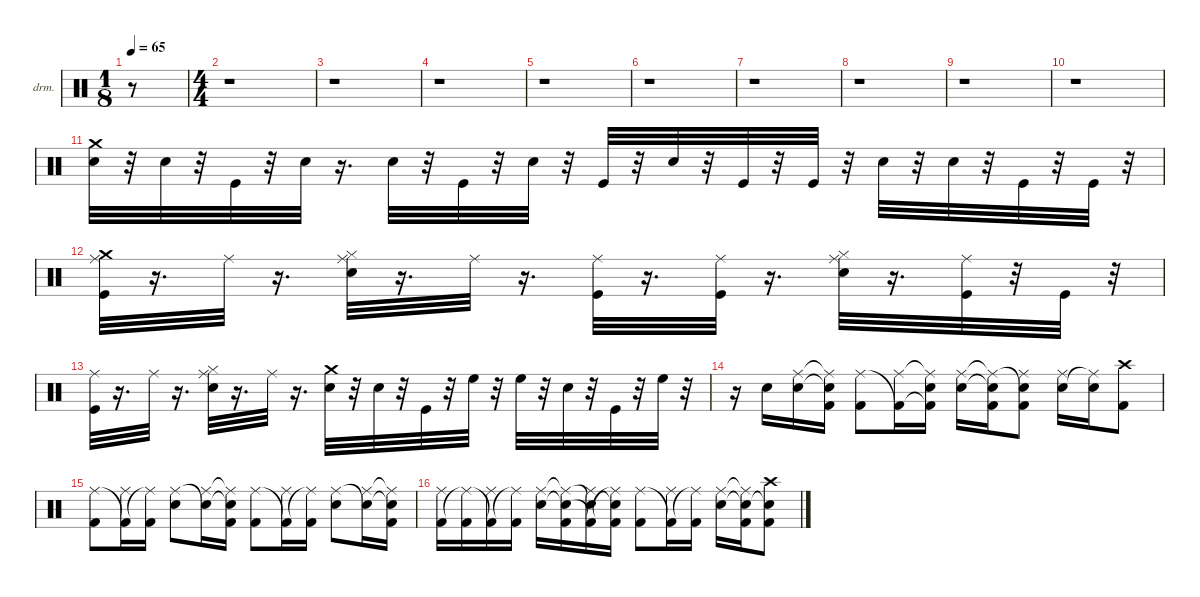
\hideDynamics
\bracketExtendMode nobrackets
\firstSystemTrackNameOrientation horizontal
\otherSystemsTrackNameOrientation horizontal
\track ("Drums" "drm.") {instrument percussion}
\staff {score}
\articulation defaults
\ts (1 8)
\tempo 65
\clef neutral
\ks aminor
r.8{dy fff beam Down} |
\ts (4 4)
r.1{beam Down} |
r.1{beam Down} |
r.1{beam Down} |
r.1{beam Down} |
r.1{beam Down} |
r.1{beam Down} |
r.1{beam Down} |
r.1{beam Down} |
r.1{beam Down} |
("Electric Snare (hit)" "Crash medium (hit)").32{beam Down} r.32{beam Down} "Electric Snare (hit)".32{dy pp beam Down} r.32{beam Down} "Kick (hit)".32{dy f beam Up} r.32{beam Up} "Electric Snare (hit)".32{beam Down} r.16{d beam Down} "Electric Snare (hit)".32{dy p beam Down} r.32{beam Down} "Kick (hit)".32{dy f beam Up} r.32{beam Up} "Electric Snare (hit)".32{dy mp beam Down} r.32{beam Down} "Kick (hit)".32{dy f beam Up} r.32{beam Up} "Electric Snare (hit)".32{dy mf beam Down} r.32{beam Down} "Kick (hit)".32{dy f beam Up} r.32{beam Up} "Kick (hit)".32{beam Up} r.32{beam Up} "Electric Snare (hit)".32{dy fff beam Down} r.32{beam Down} "Electric Snare (hit)".32{dy mf beam Down} r.32{beam Down} "Kick (hit)".32{dy f beam Up} r.32{beam Up} "Kick (hit)".32{beam Up} r.32{beam Up} |
("Crash medium (hit)" "Kick (hit)" "Ride (middle)"{acc #}).32{dy fff beam Down} r.16{d beam Down} "Ride (middle)"{acc #}.32{dy f beam Down} r.16{d beam Down} ("Electric Snare (hit)" "Hi-Hat (closed)"{acc #} "Ride (middle)"{acc #}).32{dy fff beam Down} r.16{d beam Down} "Ride (middle)"{acc #}.32{dy f beam Down} r.16{d beam Down} ("Kick (hit)" "Ride (middle)"{acc #}).32{dy fff beam Down} r.16{d beam Down} ("Kick (hit)" "Ride (middle)"{acc #}).32{dy f beam Down} r.16{d beam Down} ("Electric Snare (hit)" "Hi-Hat (closed)"{acc #} "Ride (middle)"{acc #}).32{dy fff beam Down} r.16{d beam Down} ("Kick (hit)" "Ride (middle)"{acc #}).32{dy mp beam Down} r.32{beam Down} "Kick (hit)".32{dy mf beam Up} r.32{beam Up} |
("Kick (hit)" "Ride (middle)"{acc #}).32{dy fff beam Down} r.16{d beam Down} "Ride (middle)"{acc #}.32{dy f beam Down} r.16{d beam Down} ("Electric Snare (hit)" "Hi-Hat (closed)"{acc #} "Ride (middle)"{acc #}).32{dy fff beam Down} r.16{d beam Down} "Ride (middle)"{acc #}.32{beam Down} r.16{d beam Down} ("Electric Snare (hit)" "Crash medium (hit)").32{beam Down} r.32{beam Down} "Electric Snare (hit)".32{dy p beam Down} r.32{beam Down} "Kick (hit)".32{dy f beam Up} r.32{beam Up} "High Floor Tom (hit)".32{dy mf beam Down} r.32{beam Down} "High Floor Tom (hit)".32{dy fff beam Down} r.32{beam Down} "Electric Snare (hit)".32{dy pp beam Down} r.32{beam Down} "Kick (hit)".32{dy f beam Up} r.32{beam Up} "High Floor Tom (hit)".32{dy mf beam Down} r.32{beam Down} |
r.16{beam Down} "Snare (hit) 2".16{dy ff beam Down} ("Snare (hit) 2" "Ride (middle)"{acc #}).16{beam Down} ("Snare (hit) 2"{t} "Ride (middle)"{t acc #} "Kick (hit) 2").16{beam Down} ("Ride (middle)"{acc #} "Kick (hit) 2").8{beam Down} ("Kick (hit) 2"{t} "Ride (middle)"{acc #}).16{beam Down} ("Kick (hit) 2"{t} "Ride (middle)"{t acc #} "Snare (hit) 2").16{beam Down} ("Ride (middle)"{acc #} "Snare (hit) 2").16{beam Down} ("Ride (middle)"{t acc #} "Snare (hit) 2"{t} "Kick (hit) 2").16{beam Down} ("Snare (hit) 2"{t} "Kick (hit) 2" "Ride (middle)"{acc #}).8{beam Down} ("Snare (hit) 2" "Ride (middle)"{acc #}).16{beam Down} ("Ride (middle)"{t acc #} "Snare (hit) 2").16{beam Down} ("Kick (hit) 2" "Crash high (hit)"{acc #}).8{beam Down} |
("Ride (middle)"{acc #} "Kick (hit) 2").8{beam Down} ("Kick (hit) 2"{t} "Ride (middle)"{acc #}).16{beam Down} ("Ride (middle)"{t acc #} "Kick (hit) 2").16{beam Down} ("Ride (middle)"{acc #} "Snare (hit) 2").8{beam Down} ("Snare (hit) 2"{t} "Ride (middle)"{acc #}).16{beam Down} ("Snare (hit) 2"{t} "Ride (middle)"{t acc #} "Kick (hit) 2").16{beam Down} ("Ride (middle)"{acc #} "Kick (hit) 2").8{beam Down} ("Kick (hit) 2"{t} "Ride (middle)"{acc #}).16{beam Down} ("Ride (middle)"{t acc #} "Kick (hit) 2").16{beam Down} ("Ride (middle)"{acc #} "Snare (hit) 2").8{beam Down} ("Snare (hit) 2"{t} "Ride (middle)"{acc #}).16{beam Down} ("Snare (hit) 2"{t} "Ride (middle)"{t acc #} "Kick (hit) 2").16{beam Down} |
("Kick (hit) 2" "Ride (middle)"{acc #}).16{beam Down} ("Ride (middle)"{t acc #} "Kick (hit) 2").16{beam Down} ("Kick (hit) 2"{t} "Ride (middle)"{acc #}).16{beam Down} ("Ride (middle)"{t acc #} "Kick (hit) 2").16{beam Down} ("Ride (middle)"{acc #} "Snare (hit) 2").16{beam Down} ("Ride (middle)"{t acc #} "Snare (hit) 2"{t} "Kick (hit) 2").16{beam Down} ("Snare (hit) 2"{t} "Kick (hit) 2"{t} "Ride (middle)"{acc #}).16{beam Down} ("Snare (hit) 2"{t} "Ride (middle)"{t acc #} "Kick (hit) 2").16{beam Down} ("Ride (middle)"{acc #} "Kick (hit) 2").8{beam Down} ("Kick (hit) 2"{t} "Ride (middle)"{acc #}).16{beam Down} ("Ride (middle)"{t acc #} "Kick (hit) 2").16{beam Down} ("Ride (middle)"{acc #} "Snare (hit) 2").16{beam Down} ("Ride (middle)"{t acc #} "Snare (hit) 2"{t} "Kick (hit) 2").16{beam Down} ("Kick (hit) 2" "Snare (hit) 2"{t} "Crash high (hit)"{acc #}).8{beam Down}
